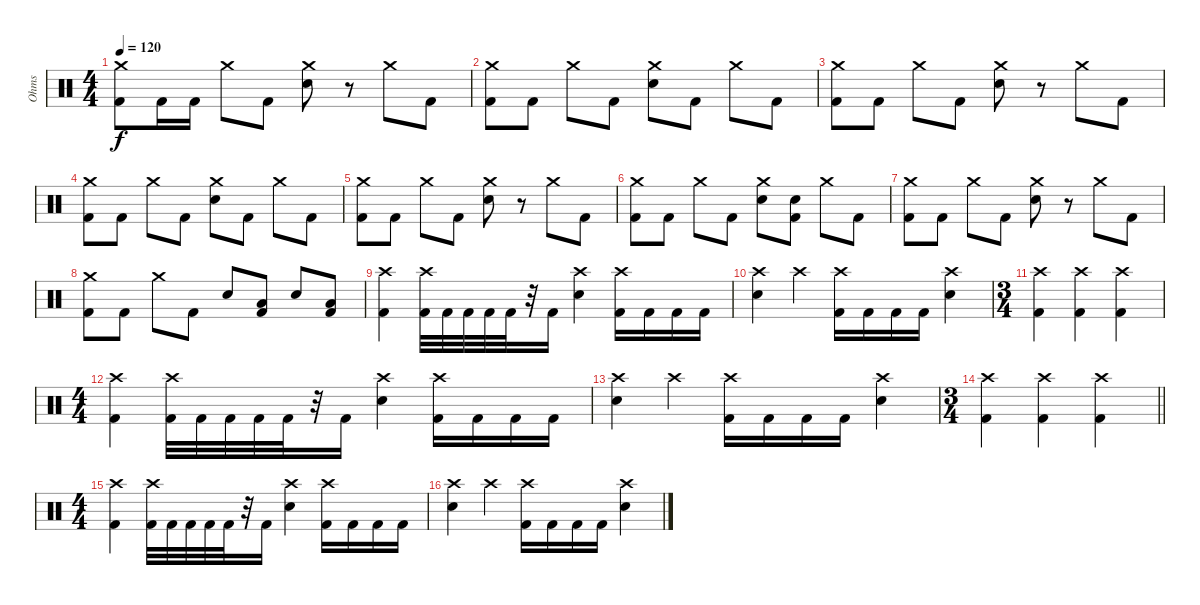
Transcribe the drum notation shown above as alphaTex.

\track ("Ohms" "Ohms") {instrument percussion}
\staff {score}
\articulation defaults
\ts (4 4)
\tempo 120
\clef neutral
\ks c
("Crash medium (hit)" "Kick (hit) 2").8{dy f} "Kick (hit) 2".16 "Kick (hit) 2".16 "Crash medium (hit)".8 "Kick (hit) 2".8 ("Crash medium (hit)" "Snare (hit) 2").8 r.8 "Crash medium (hit)".8 "Kick (hit) 2".8 |
("Crash medium (hit)" "Kick (hit) 2").8 "Kick (hit) 2".8 "Crash medium (hit)".8 "Kick (hit) 2".8 ("Crash medium (hit)" "Snare (hit) 2").8 "Kick (hit) 2".8 "Crash medium (hit)".8 "Kick (hit) 2".8 |
("Crash medium (hit)" "Kick (hit) 2").8 "Kick (hit) 2".8 "Crash medium (hit)".8 "Kick (hit) 2".8 ("Crash medium (hit)" "Snare (hit) 2").8 r.8 "Crash medium (hit)".8 "Kick (hit) 2".8 |
("Crash medium (hit)" "Kick (hit) 2").8 "Kick (hit) 2".8 "Crash medium (hit)".8 "Kick (hit) 2".8 ("Crash medium (hit)" "Snare (hit) 2").8 "Kick (hit) 2".8 "Crash medium (hit)".8 "Kick (hit) 2".8 |
("Crash medium (hit)" "Kick (hit) 2").8 "Kick (hit) 2".8 "Crash medium (hit)".8 "Kick (hit) 2".8 ("Crash medium (hit)" "Snare (hit) 2").8 r.8 "Crash medium (hit)".8 "Kick (hit) 2".8 |
("Crash medium (hit)" "Kick (hit) 2").8 "Kick (hit) 2".8 "Crash medium (hit)".8 "Kick (hit) 2".8 ("Crash medium (hit)" "Snare (hit) 2").8 ("Snare (hit) 2" "Kick (hit) 2").8 "Crash medium (hit)".8 "Kick (hit) 2".8 |
("Crash medium (hit)" "Kick (hit) 2").8 "Kick (hit) 2".8 "Crash medium (hit)".8 "Kick (hit) 2".8 ("Crash medium (hit)" "Snare (hit) 2").8 r.8 "Crash medium (hit)".8 "Kick (hit) 2".8 |
("Crash medium (hit)" "Kick (hit) 2").8 "Kick (hit) 2".8 "Crash medium (hit)".8 "Kick (hit) 2".8 "Snare (hit) 2".8 ("Low Tom (hit)" "Kick (hit) 2").8 "Snare (hit) 2".8 ("Low Floor Tom (hit)" "Kick (hit) 2").8 |
("Crash high (hit)" "Kick (hit) 2").4 ("Crash high (hit)" "Kick (hit) 2").32 "Kick (hit) 2".32 "Kick (hit) 2".32 "Kick (hit) 2".32 "Kick (hit) 2".32 r.32 "Kick (hit) 2".16 ("Crash high (hit)" "Snare (hit) 2").4 ("Crash high (hit)" "Kick (hit) 2").16 "Kick (hit) 2".16 "Kick (hit) 2".16 "Kick (hit) 2".16 |
("Crash high (hit)" "Snare (hit) 2").4 "Crash high (hit)".4 ("Crash high (hit)" "Kick (hit) 2").16 "Kick (hit) 2".16 "Kick (hit) 2".16 "Kick (hit) 2".16 ("Crash high (hit)" "Snare (hit) 2").4 |
\ts (3 4)
("Crash high (hit)" "Kick (hit) 2").4 ("Crash high (hit)" "Kick (hit) 2").4 ("Crash high (hit)" "Kick (hit) 2").4 |
\ts (4 4)
("Crash high (hit)" "Kick (hit) 2").4 ("Crash high (hit)" "Kick (hit) 2").32 "Kick (hit) 2".32 "Kick (hit) 2".32 "Kick (hit) 2".32 "Kick (hit) 2".32 r.32 "Kick (hit) 2".16 ("Crash high (hit)" "Snare (hit) 2").4 ("Crash high (hit)" "Kick (hit) 2").16 "Kick (hit) 2".16 "Kick (hit) 2".16 "Kick (hit) 2".16 |
("Crash high (hit)" "Snare (hit) 2").4 "Crash high (hit)".4 ("Crash high (hit)" "Kick (hit) 2").16 "Kick (hit) 2".16 "Kick (hit) 2".16 "Kick (hit) 2".16 ("Crash high (hit)" "Snare (hit) 2").4 |
\ts (3 4)
\barLineRight lightlight
("Crash high (hit)" "Kick (hit) 2").4 ("Crash high (hit)" "Kick (hit) 2").4 ("Crash high (hit)" "Kick (hit) 2").4 |
\ts (4 4)
("Crash high (hit)" "Kick (hit) 2").4{volume 0} ("Crash high (hit)" "Kick (hit) 2").32 "Kick (hit) 2".32 "Kick (hit) 2".32 "Kick (hit) 2".32 "Kick (hit) 2".32 r.32 "Kick (hit) 2".16 ("Crash high (hit)" "Snare (hit) 2").4 ("Crash high (hit)" "Kick (hit) 2").16 "Kick (hit) 2".16 "Kick (hit) 2".16 "Kick (hit) 2".16 |
("Crash high (hit)" "Snare (hit) 2").4 "Crash high (hit)".4 ("Crash high (hit)" "Kick (hit) 2").16 "Kick (hit) 2".16 "Kick (hit) 2".16 "Kick (hit) 2".16 ("Crash high (hit)" "Snare (hit) 2").4
